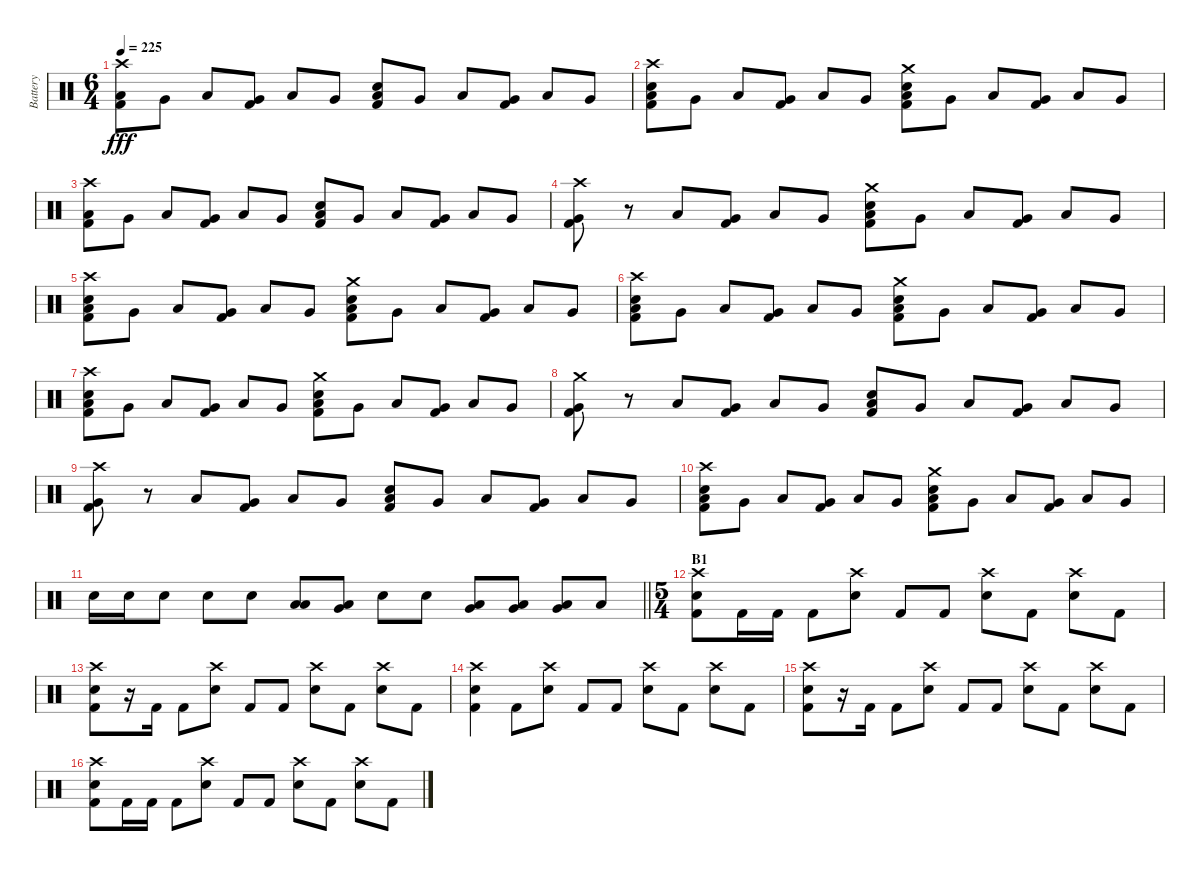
\track ("Battery" "Battery") {instrument percussion}
\staff {score}
\articulation defaults
\ts (6 4)
\tempo 225
\clef neutral
\ks c
("Crash high (hit)" "Low Tom (hit)" "Kick (hit) 2").8{dy fff} "Very Low Tom (hit)".8 "Low Tom (hit)".8 ("Very Low Tom (hit)" "Kick (hit) 2").8 "Low Tom (hit)".8 "Very Low Tom (hit)".8 ("Low Tom (hit)" "Electric Snare (hit)" "Kick (hit) 2").8 "Very Low Tom (hit)".8 "Low Tom (hit)".8 ("Very Low Tom (hit)" "Kick (hit) 2").8 "Low Tom (hit)".8 "Very Low Tom (hit)".8 |
("Crash high (hit)" "Low Tom (hit)" "Electric Snare (hit)" "Kick (hit) 2").8 "Very Low Tom (hit)".8 "Low Tom (hit)".8 ("Very Low Tom (hit)" "Kick (hit) 2").8 "Low Tom (hit)".8 "Very Low Tom (hit)".8 ("Crash medium (hit)" "Low Tom (hit)" "Electric Snare (hit)" "Kick (hit) 2").8 "Very Low Tom (hit)".8 "Low Tom (hit)".8 ("Very Low Tom (hit)" "Kick (hit) 2").8 "Low Tom (hit)".8 "Very Low Tom (hit)".8 |
("Crash high (hit)" "Low Tom (hit)" "Kick (hit) 2").8 "Very Low Tom (hit)".8 "Low Tom (hit)".8 ("Very Low Tom (hit)" "Kick (hit) 2").8 "Low Tom (hit)".8 "Very Low Tom (hit)".8 ("Low Tom (hit)" "Electric Snare (hit)" "Kick (hit) 2").8 "Very Low Tom (hit)".8 "Low Tom (hit)".8 ("Very Low Tom (hit)" "Kick (hit) 2").8 "Low Tom (hit)".8 "Very Low Tom (hit)".8 |
("Crash high (hit)" "Very Low Tom (hit)" "Kick (hit) 2").8 r.8 "Low Tom (hit)".8 ("Very Low Tom (hit)" "Kick (hit) 2").8 "Low Tom (hit)".8 "Very Low Tom (hit)".8 ("Crash medium (hit)" "Low Tom (hit)" "Electric Snare (hit)" "Kick (hit) 2").8 "Very Low Tom (hit)".8 "Low Tom (hit)".8 ("Very Low Tom (hit)" "Kick (hit) 2").8 "Low Tom (hit)".8 "Very Low Tom (hit)".8 |
("Crash high (hit)" "Low Tom (hit)" "Electric Snare (hit)" "Kick (hit) 2").8 "Very Low Tom (hit)".8 "Low Tom (hit)".8 ("Very Low Tom (hit)" "Kick (hit) 2").8 "Low Tom (hit)".8 "Very Low Tom (hit)".8 ("Crash medium (hit)" "Low Tom (hit)" "Electric Snare (hit)" "Kick (hit) 2").8 "Very Low Tom (hit)".8 "Low Tom (hit)".8 ("Very Low Tom (hit)" "Kick (hit) 2").8 "Low Tom (hit)".8 "Very Low Tom (hit)".8 |
("Crash high (hit)" "Low Tom (hit)" "Electric Snare (hit)" "Kick (hit) 2").8 "Very Low Tom (hit)".8 "Low Tom (hit)".8 ("Very Low Tom (hit)" "Kick (hit) 2").8 "Low Tom (hit)".8 "Very Low Tom (hit)".8 ("Crash medium (hit)" "Low Tom (hit)" "Electric Snare (hit)" "Kick (hit) 2").8 "Very Low Tom (hit)".8 "Low Tom (hit)".8 ("Very Low Tom (hit)" "Kick (hit) 2").8 "Low Tom (hit)".8 "Very Low Tom (hit)".8 |
("Crash high (hit)" "Low Tom (hit)" "Electric Snare (hit)" "Kick (hit) 2").8 "Very Low Tom (hit)".8 "Low Tom (hit)".8 ("Very Low Tom (hit)" "Kick (hit) 2").8 "Low Tom (hit)".8 "Very Low Tom (hit)".8 ("Crash medium (hit)" "Low Tom (hit)" "Electric Snare (hit)" "Kick (hit) 2").8 "Very Low Tom (hit)".8 "Low Tom (hit)".8 ("Very Low Tom (hit)" "Kick (hit) 2").8 "Low Tom (hit)".8 "Very Low Tom (hit)".8 |
("Crash medium (hit)" "Very Low Tom (hit)" "Kick (hit) 2").8 r.8 "Low Tom (hit)".8 ("Very Low Tom (hit)" "Kick (hit) 2").8 "Low Tom (hit)".8 "Very Low Tom (hit)".8 ("Low Tom (hit)" "Electric Snare (hit)" "Kick (hit) 2").8 "Very Low Tom (hit)".8 "Low Tom (hit)".8 ("Very Low Tom (hit)" "Kick (hit) 2").8 "Low Tom (hit)".8 "Very Low Tom (hit)".8 |
("Crash high (hit)" "Very Low Tom (hit)" "Kick (hit) 2").8 r.8 "Low Tom (hit)".8 ("Very Low Tom (hit)" "Kick (hit) 2").8 "Low Tom (hit)".8 "Very Low Tom (hit)".8 ("Low Tom (hit)" "Electric Snare (hit)" "Kick (hit) 2").8 "Very Low Tom (hit)".8 "Low Tom (hit)".8 ("Very Low Tom (hit)" "Kick (hit) 2").8 "Low Tom (hit)".8 "Very Low Tom (hit)".8 |
("Crash high (hit)" "Low Tom (hit)" "Electric Snare (hit)" "Kick (hit) 2").8 "Very Low Tom (hit)".8 "Low Tom (hit)".8 ("Very Low Tom (hit)" "Kick (hit) 2").8 "Low Tom (hit)".8 "Very Low Tom (hit)".8 ("Crash medium (hit)" "Low Tom (hit)" "Electric Snare (hit)" "Kick (hit) 2").8 "Very Low Tom (hit)".8 "Low Tom (hit)".8 ("Very Low Tom (hit)" "Kick (hit) 2").8 "Low Tom (hit)".8 "Very Low Tom (hit)".8 |
\barLineRight lightlight "Electric Snare (hit)".16 "Electric Snare (hit)".16 "Electric Snare (hit)".8 "Electric Snare (hit)".8 "Electric Snare (hit)".8
("Low Tom (hit)" "Low Tom (hit)").8 ("Low Floor Tom (hit)" "Very Low Tom (hit)").8 "Electric Snare (hit)".8 "Electric Snare (hit)".8 ("Very Low Tom (hit)" "Low Tom (hit)").8 ("Very Low Tom (hit)" "Low Tom (hit)").8 ("Low Floor Tom (hit)" "Very Low Tom (hit)").8 "Low Floor Tom (hit)".8 |
\ts (5 4)
\section ("" "B1")
("Crash high (hit)" "Electric Snare (hit)" "Kick (hit) 2").8 "Kick (hit) 2".16 "Kick (hit) 2".16 "Kick (hit) 2".8 ("Crash high (hit)" "Electric Snare (hit)").8 "Kick (hit) 2".8 "Kick (hit) 2".8 ("Crash high (hit)" "Electric Snare (hit)").8 "Kick (hit) 2".8 ("Crash high (hit)" "Electric Snare (hit)").8 "Kick (hit) 2".8 |
("Crash high (hit)" "Electric Snare (hit)" "Kick (hit) 2").8 r.16 "Kick (hit) 2".16 "Kick (hit) 2".8 ("Crash high (hit)" "Electric Snare (hit)").8 "Kick (hit) 2".8 "Kick (hit) 2".8 ("Crash high (hit)" "Electric Snare (hit)").8 "Kick (hit) 2".8 ("Crash high (hit)" "Electric Snare (hit)").8 "Kick (hit) 2".8 |
("Crash high (hit)" "Electric Snare (hit)" "Kick (hit) 2").4 "Kick (hit) 2".8 ("Crash high (hit)" "Electric Snare (hit)").8 "Kick (hit) 2".8 "Kick (hit) 2".8 ("Crash high (hit)" "Electric Snare (hit)").8 "Kick (hit) 2".8 ("Crash high (hit)" "Electric Snare (hit)").8 "Kick (hit) 2".8 |
("Crash high (hit)" "Electric Snare (hit)" "Kick (hit) 2").8 r.16 "Kick (hit) 2".16 "Kick (hit) 2".8 ("Crash high (hit)" "Electric Snare (hit)").8 "Kick (hit) 2".8 "Kick (hit) 2".8 ("Crash high (hit)" "Electric Snare (hit)").8 "Kick (hit) 2".8 ("Crash high (hit)" "Electric Snare (hit)").8 "Kick (hit) 2".8 |
("Crash high (hit)" "Electric Snare (hit)" "Kick (hit) 2").8 "Kick (hit) 2".16 "Kick (hit) 2".16 "Kick (hit) 2".8 ("Crash high (hit)" "Electric Snare (hit)").8 "Kick (hit) 2".8 "Kick (hit) 2".8 ("Crash high (hit)" "Electric Snare (hit)").8 "Kick (hit) 2".8 ("Crash high (hit)" "Electric Snare (hit)").8 "Kick (hit) 2".8
